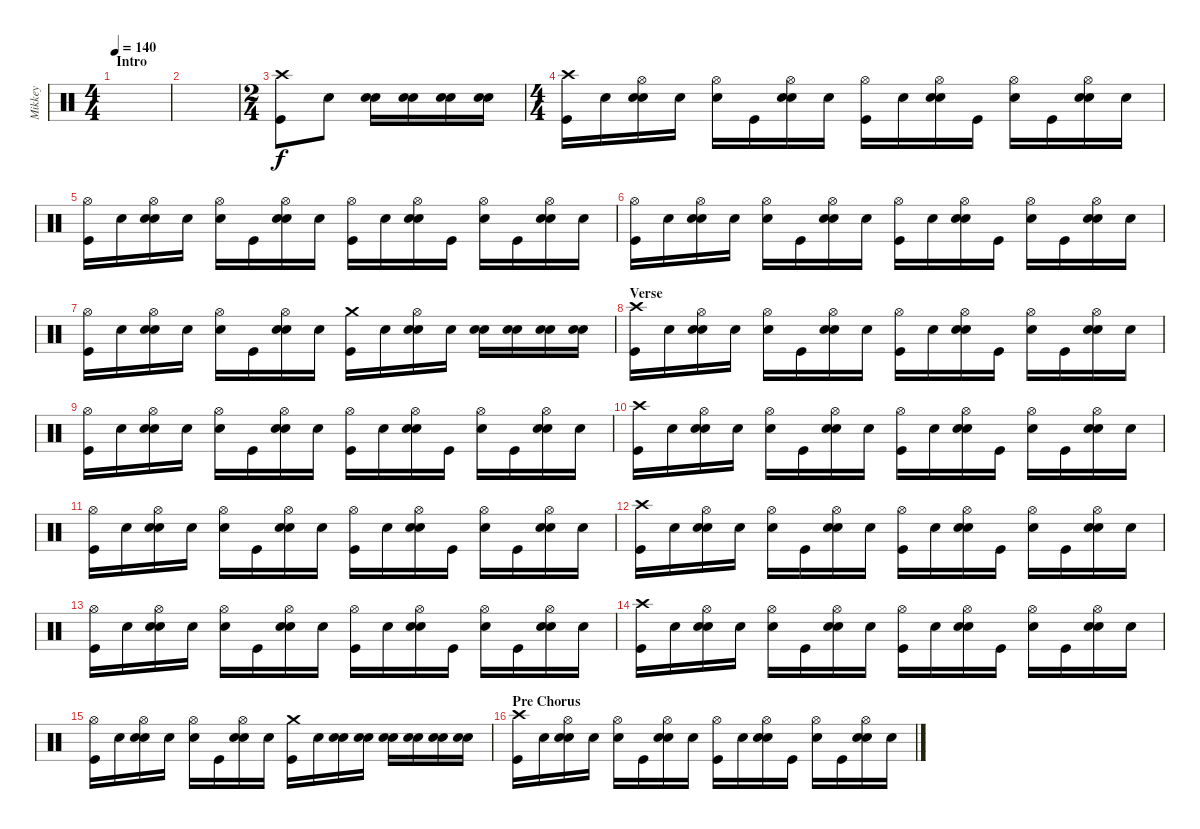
\track ("Mikkey" "Mikkey") {instrument percussion}
\staff {score}
\articulation defaults
\ts (4 4)
\section ("" "Intro")
\tempo 140
\clef neutral
\ks c
|
|
\ts (2 4)
("Crash high (hit)" "Kick (hit)").8 "Snare (hit)".8 ("Electric Snare (hit)" "Snare (hit)").16 ("Electric Snare (hit)" "Snare (hit)").16 ("Electric Snare (hit)" "Snare (hit)").16 ("Electric Snare (hit)" "Snare (hit)").16 |
\ts (4 4)
("Crash high (hit)" "Kick (hit)").16 "Snare (hit)".16 ("Hi-Hat (open)" "Electric Snare (hit)" "Snare (hit)").16 "Snare (hit)".16 ("Hi-Hat (open)" "Snare (hit)").16 "Kick (hit)".16 ("Hi-Hat (open)" "Electric Snare (hit)" "Snare (hit)").16 "Snare (hit)".16 ("Hi-Hat (open)" "Kick (hit)").16 "Snare (hit)".16 ("Hi-Hat (open)" "Electric Snare (hit)" "Snare (hit)").16 "Kick (hit)".16 ("Hi-Hat (open)" "Snare (hit)").16 "Kick (hit)".16 ("Hi-Hat (open)" "Electric Snare (hit)" "Snare (hit)").16 "Snare (hit)".16 |
("Hi-Hat (open)" "Kick (hit)").16 "Snare (hit)".16 ("Hi-Hat (open)" "Electric Snare (hit)" "Snare (hit)").16 "Snare (hit)".16 ("Hi-Hat (open)" "Snare (hit)").16 "Kick (hit)".16 ("Hi-Hat (open)" "Electric Snare (hit)" "Snare (hit)").16 "Snare (hit)".16 ("Hi-Hat (open)" "Kick (hit)").16 "Snare (hit)".16 ("Hi-Hat (open)" "Electric Snare (hit)" "Snare (hit)").16 "Kick (hit)".16 ("Hi-Hat (open)" "Snare (hit)").16 "Kick (hit)".16 ("Hi-Hat (open)" "Electric Snare (hit)" "Snare (hit)").16 "Snare (hit)".16 |
("Hi-Hat (open)" "Kick (hit)").16 "Snare (hit)".16 ("Hi-Hat (open)" "Electric Snare (hit)" "Snare (hit)").16 "Snare (hit)".16 ("Hi-Hat (open)" "Snare (hit)").16 "Kick (hit)".16 ("Hi-Hat (open)" "Electric Snare (hit)" "Snare (hit)").16 "Snare (hit)".16 ("Hi-Hat (open)" "Kick (hit)").16 "Snare (hit)".16 ("Hi-Hat (open)" "Electric Snare (hit)" "Snare (hit)").16 "Kick (hit)".16 ("Hi-Hat (open)" "Snare (hit)").16 "Kick (hit)".16 ("Hi-Hat (open)" "Electric Snare (hit)" "Snare (hit)").16 "Snare (hit)".16 |
("Hi-Hat (open)" "Kick (hit)").16 "Snare (hit)".16 ("Hi-Hat (open)" "Electric Snare (hit)" "Snare (hit)").16 "Snare (hit)".16 ("Hi-Hat (open)" "Snare (hit)").16 "Kick (hit)".16 ("Hi-Hat (open)" "Electric Snare (hit)" "Snare (hit)").16 "Snare (hit)".16 ("Crash medium (hit)" "Kick (hit)").16 "Snare (hit)".16 ("Hi-Hat (open)" "Electric Snare (hit)" "Snare (hit)").16 "Snare (hit)".16 ("Electric Snare (hit)" "Snare (hit)").16 ("Electric Snare (hit)" "Snare (hit)").16 ("Electric Snare (hit)" "Snare (hit)").16 ("Electric Snare (hit)" "Snare (hit)").16 |
\section ("" "Verse")
("Crash high (hit)" "Kick (hit)").16 "Snare (hit)".16 ("Hi-Hat (open)" "Electric Snare (hit)" "Snare (hit)").16 "Snare (hit)".16 ("Hi-Hat (open)" "Snare (hit)").16 "Kick (hit)".16 ("Hi-Hat (open)" "Electric Snare (hit)" "Snare (hit)").16 "Snare (hit)".16 ("Hi-Hat (open)" "Kick (hit)").16 "Snare (hit)".16 ("Hi-Hat (open)" "Electric Snare (hit)" "Snare (hit)").16 "Kick (hit)".16 ("Hi-Hat (open)" "Snare (hit)").16 "Kick (hit)".16 ("Hi-Hat (open)" "Electric Snare (hit)" "Snare (hit)").16 "Snare (hit)".16 |
("Hi-Hat (open)" "Kick (hit)").16 "Snare (hit)".16 ("Hi-Hat (open)" "Electric Snare (hit)" "Snare (hit)").16 "Snare (hit)".16 ("Hi-Hat (open)" "Snare (hit)").16 "Kick (hit)".16 ("Hi-Hat (open)" "Electric Snare (hit)" "Snare (hit)").16 "Snare (hit)".16 ("Hi-Hat (open)" "Kick (hit)").16 "Snare (hit)".16 ("Hi-Hat (open)" "Electric Snare (hit)" "Snare (hit)").16 "Kick (hit)".16 ("Hi-Hat (open)" "Snare (hit)").16 "Kick (hit)".16 ("Hi-Hat (open)" "Electric Snare (hit)" "Snare (hit)").16 "Snare (hit)".16 |
("Crash high (hit)" "Kick (hit)").16 "Snare (hit)".16 ("Hi-Hat (open)" "Electric Snare (hit)" "Snare (hit)").16 "Snare (hit)".16 ("Hi-Hat (open)" "Snare (hit)").16 "Kick (hit)".16 ("Hi-Hat (open)" "Electric Snare (hit)" "Snare (hit)").16 "Snare (hit)".16 ("Hi-Hat (open)" "Kick (hit)").16 "Snare (hit)".16 ("Hi-Hat (open)" "Electric Snare (hit)" "Snare (hit)").16 "Kick (hit)".16 ("Hi-Hat (open)" "Snare (hit)").16 "Kick (hit)".16 ("Hi-Hat (open)" "Electric Snare (hit)" "Snare (hit)").16 "Snare (hit)".16 |
("Hi-Hat (open)" "Kick (hit)").16 "Snare (hit)".16 ("Hi-Hat (open)" "Electric Snare (hit)" "Snare (hit)").16 "Snare (hit)".16 ("Hi-Hat (open)" "Snare (hit)").16 "Kick (hit)".16 ("Hi-Hat (open)" "Electric Snare (hit)" "Snare (hit)").16 "Snare (hit)".16 ("Hi-Hat (open)" "Kick (hit)").16 "Snare (hit)".16 ("Hi-Hat (open)" "Electric Snare (hit)" "Snare (hit)").16 "Kick (hit)".16 ("Hi-Hat (open)" "Snare (hit)").16 "Kick (hit)".16 ("Hi-Hat (open)" "Electric Snare (hit)" "Snare (hit)").16 "Snare (hit)".16 |
("Crash high (hit)" "Kick (hit)").16 "Snare (hit)".16 ("Hi-Hat (open)" "Electric Snare (hit)" "Snare (hit)").16 "Snare (hit)".16 ("Hi-Hat (open)" "Snare (hit)").16 "Kick (hit)".16 ("Hi-Hat (open)" "Electric Snare (hit)" "Snare (hit)").16 "Snare (hit)".16 ("Hi-Hat (open)" "Kick (hit)").16 "Snare (hit)".16 ("Hi-Hat (open)" "Electric Snare (hit)" "Snare (hit)").16 "Kick (hit)".16 ("Hi-Hat (open)" "Snare (hit)").16 "Kick (hit)".16 ("Hi-Hat (open)" "Electric Snare (hit)" "Snare (hit)").16 "Snare (hit)".16 |
("Hi-Hat (open)" "Kick (hit)").16 "Snare (hit)".16 ("Hi-Hat (open)" "Electric Snare (hit)" "Snare (hit)").16 "Snare (hit)".16 ("Hi-Hat (open)" "Snare (hit)").16 "Kick (hit)".16 ("Hi-Hat (open)" "Electric Snare (hit)" "Snare (hit)").16 "Snare (hit)".16 ("Hi-Hat (open)" "Kick (hit)").16 "Snare (hit)".16 ("Hi-Hat (open)" "Electric Snare (hit)" "Snare (hit)").16 "Kick (hit)".16 ("Hi-Hat (open)" "Snare (hit)").16 "Kick (hit)".16 ("Hi-Hat (open)" "Electric Snare (hit)" "Snare (hit)").16 "Snare (hit)".16 |
("Crash high (hit)" "Kick (hit)").16 "Snare (hit)".16 ("Hi-Hat (open)" "Electric Snare (hit)" "Snare (hit)").16 "Snare (hit)".16 ("Hi-Hat (open)" "Snare (hit)").16 "Kick (hit)".16 ("Hi-Hat (open)" "Electric Snare (hit)" "Snare (hit)").16 "Snare (hit)".16 ("Hi-Hat (open)" "Kick (hit)").16 "Snare (hit)".16 ("Hi-Hat (open)" "Electric Snare (hit)" "Snare (hit)").16 "Kick (hit)".16 ("Hi-Hat (open)" "Snare (hit)").16 "Kick (hit)".16 ("Hi-Hat (open)" "Electric Snare (hit)" "Snare (hit)").16 "Snare (hit)".16 |
("Hi-Hat (open)" "Kick (hit)").16 "Snare (hit)".16 ("Hi-Hat (open)" "Electric Snare (hit)" "Snare (hit)").16 "Snare (hit)".16 ("Hi-Hat (open)" "Snare (hit)").16 "Kick (hit)".16 ("Hi-Hat (open)" "Electric Snare (hit)" "Snare (hit)").16 "Snare (hit)".16 ("Crash medium (hit)" "Kick (hit)").16 "Snare (hit)".16 ("Electric Snare (hit)" "Snare (hit)").16 ("Electric Snare (hit)" "Snare (hit)").16 ("Electric Snare (hit)" "Snare (hit)").16 ("Electric Snare (hit)" "Snare (hit)").16 ("Electric Snare (hit)" "Snare (hit)").16 ("Electric Snare (hit)" "Snare (hit)").16 |
\section ("" "Pre Chorus")
("Crash high (hit)" "Kick (hit)").16 "Snare (hit)".16 ("Hi-Hat (open)" "Electric Snare (hit)" "Snare (hit)").16 "Snare (hit)".16 ("Hi-Hat (open)" "Snare (hit)").16 "Kick (hit)".16 ("Hi-Hat (open)" "Electric Snare (hit)" "Snare (hit)").16 "Snare (hit)".16 ("Hi-Hat (open)" "Kick (hit)").16 "Snare (hit)".16 ("Hi-Hat (open)" "Electric Snare (hit)" "Snare (hit)").16 "Kick (hit)".16 ("Hi-Hat (open)" "Snare (hit)").16 "Kick (hit)".16 ("Hi-Hat (open)" "Electric Snare (hit)" "Snare (hit)").16 "Snare (hit)".16
